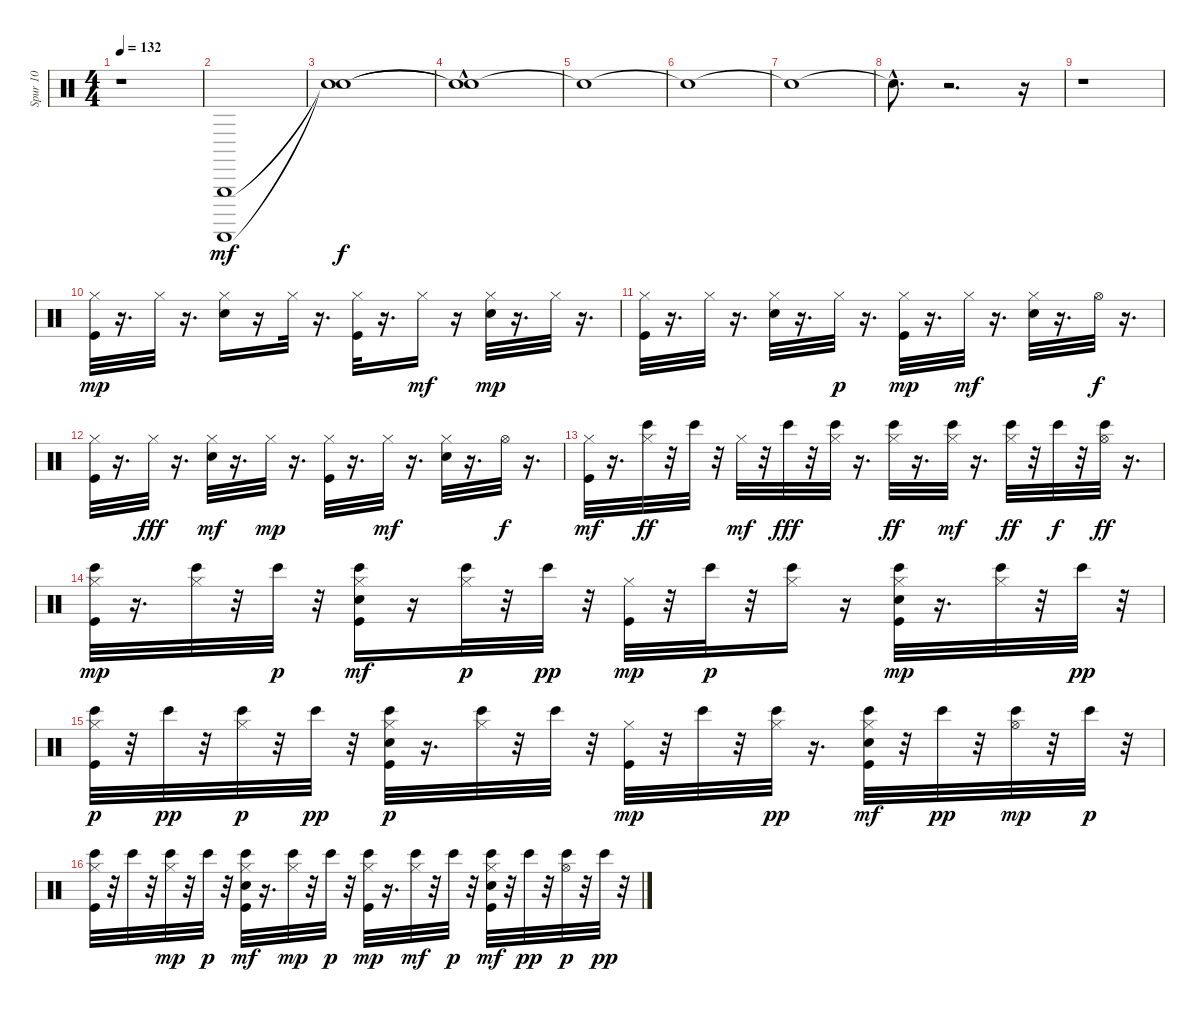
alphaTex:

\track ("Spur 10" "Spur 10") {instrument percussion}
\staff {score}
\articulation defaults
\ts (4 4)
\tempo 132
\clef neutral
\ks c
r.1{dy mf} |
("Triangle (hit)" "Guiro (scrap-return)").1 |
("Snare (hit)"{t} "Snare (hit)"{t}).1{dy f} |
("Snare (hit)"{hac t} "Snare (hit)"{t}).1 |
"Snare (hit)"{t}.1 |
"Snare (hit)"{t}.1 |
"Snare (hit)"{t}.1 |
"Snare (hit)"{hac t}.8{d} r.2{d} r.16 |
r.1 |
("Hi-Hat (closed)" "Kick (hit)").32{dy mp} r.16{d} "Hi-Hat (closed)".32 r.16{d} ("Hi-Hat (closed)" "Snare (hit) 2").16 r.16 "Hi-Hat (closed)".32 r.16{d} ("Hi-Hat (closed)" "Kick (hit)").32 r.16{d} "Hi-Hat (closed)".16{dy mf} r.16 ("Hi-Hat (closed)" "Snare (hit) 2").32{dy mp} r.16{d} "Hi-Hat (closed)".32 r.16{d} |
("Hi-Hat (closed)" "Kick (hit)").32 r.16{d} "Hi-Hat (closed)".32 r.16{d} ("Hi-Hat (closed)" "Snare (hit) 2").32 r.16{d} "Hi-Hat (closed)".32{dy p} r.16{d} ("Hi-Hat (closed)" "Kick (hit)").32{dy mp} r.16{d} "Hi-Hat (closed)".32{dy mf} r.16{d} ("Hi-Hat (closed)" "Snare (hit) 2").32 r.16{d} "Hi-Hat (open)".32{dy f} r.16{d} |
("Hi-Hat (closed)" "Kick (hit)").32 r.16{d} "Hi-Hat (closed)".32{dy fff} r.16{d} ("Hi-Hat (closed)" "Snare (hit) 2").32{dy mf} r.16{d} "Hi-Hat (closed)".32{dy mp} r.16{d} ("Hi-Hat (closed)" "Kick (hit)").32 r.16{d} "Hi-Hat (closed)".32{dy mf} r.16{d} ("Hi-Hat (closed)" "Snare (hit) 2").32 r.16{d} "Hi-Hat (open)".32{dy f} r.16{d} |
("Hi-Hat (closed)" "Kick (hit)").32{dy mf} r.16{d} ("Hi-Hat (closed)" "Bongo High (hit)").32{dy ff} r.32 "Bongo High (hit)".32 r.32 "Hi-Hat (closed)".32{dy mf} r.32 "Bongo High (hit)".32{dy fff} r.32 ("Hi-Hat (closed)" "Bongo High (hit)").32 r.16{d} ("Hi-Hat (closed)" "Bongo High (hit)").32{dy ff} r.16{d} ("Hi-Hat (closed)" "Bongo High (hit)").32{dy mf} r.16{d} ("Hi-Hat (closed)" "Bongo High (hit)").32{dy ff} r.32 "Bongo High (hit)".32{dy f} r.32 ("Hi-Hat (open)" "Bongo High (hit)").32{dy ff} r.16{d} |
("Bongo High (hit)" "Kick (hit)" "Hi-Hat (closed)").32{dy mp} r.16{d} ("Bongo High (hit)" "Hi-Hat (closed)").32 r.32 "Bongo High (hit)".32{dy p} r.32 ("Hi-Hat (closed)" "Snare (hit) 2" "Bongo High (hit)" "Kick (hit)").16{dy mf} r.16 ("Hi-Hat (closed)" "Bongo High (hit)").32{dy p} r.32 "Bongo High (hit)".32{dy pp} r.32 ("Hi-Hat (closed)" "Kick (hit)").32{dy mp} r.32 "Bongo High (hit)".32{dy p} r.32 ("Hi-Hat (closed)" "Bongo High (hit)").16 r.16 ("Kick (hit)" "Bongo High (hit)" "Hi-Hat (closed)" "Snare (hit) 2").32{dy mp} r.16{d} ("Bongo High (hit)" "Hi-Hat (closed)").32 r.32 "Bongo High (hit)".32{dy pp} r.32 |
("Hi-Hat (closed)" "Bongo High (hit)" "Kick (hit)").32{dy p} r.32 "Bongo High (hit)".32{dy pp} r.32 ("Hi-Hat (closed)" "Bongo High (hit)").32{dy p} r.32 "Bongo High (hit)".32{dy pp} r.32 ("Kick (hit)" "Hi-Hat (closed)" "Snare (hit) 2" "Bongo High (hit)").32{dy p} r.16{d} ("Bongo High (hit)" "Hi-Hat (closed)").32 r.32 "Bongo High (hit)".32 r.32 ("Hi-Hat (closed)" "Kick (hit)").32{dy mp} r.32 "Bongo High (hit)".32 r.32 ("Hi-Hat (closed)" "Bongo High (hit)").32{dy pp} r.16{d} ("Kick (hit)" "Bongo High (hit)" "Hi-Hat (closed)" "Snare (hit) 2").32{dy mf} r.32 "Bongo High (hit)".32{dy pp} r.32 ("Hi-Hat (open)" "Bongo High (hit)").32{dy mp} r.32 "Bongo High (hit)".32{dy p} r.32 |
("Hi-Hat (closed)" "Kick (hit)" "Bongo High (hit)").32 r.32 "Bongo High (hit)".32 r.32 ("Hi-Hat (closed)" "Bongo High (hit)").32{dy mp} r.32 "Bongo High (hit)".32{dy p} r.32 ("Hi-Hat (closed)" "Snare (hit) 2" "Bongo High (hit)" "Kick (hit)").32{dy mf} r.16{d} ("Bongo High (hit)" "Hi-Hat (closed)").32{dy mp} r.32 "Bongo High (hit)".32{dy p} r.32 ("Bongo High (hit)" "Hi-Hat (closed)" "Kick (hit)").32{dy mp} r.16{d} ("Bongo High (hit)" "Hi-Hat (closed)").32{dy mf} r.32 "Bongo High (hit)".32{dy p} r.32 ("Bongo High (hit)" "Hi-Hat (closed)" "Snare (hit) 2" "Kick (hit)").32{dy mf} r.32 "Bongo High (hit)".32{dy pp} r.32 ("Bongo High (hit)" "Hi-Hat (open)").32{dy p} r.32 "Bongo High (hit)".32{dy pp} r.32
